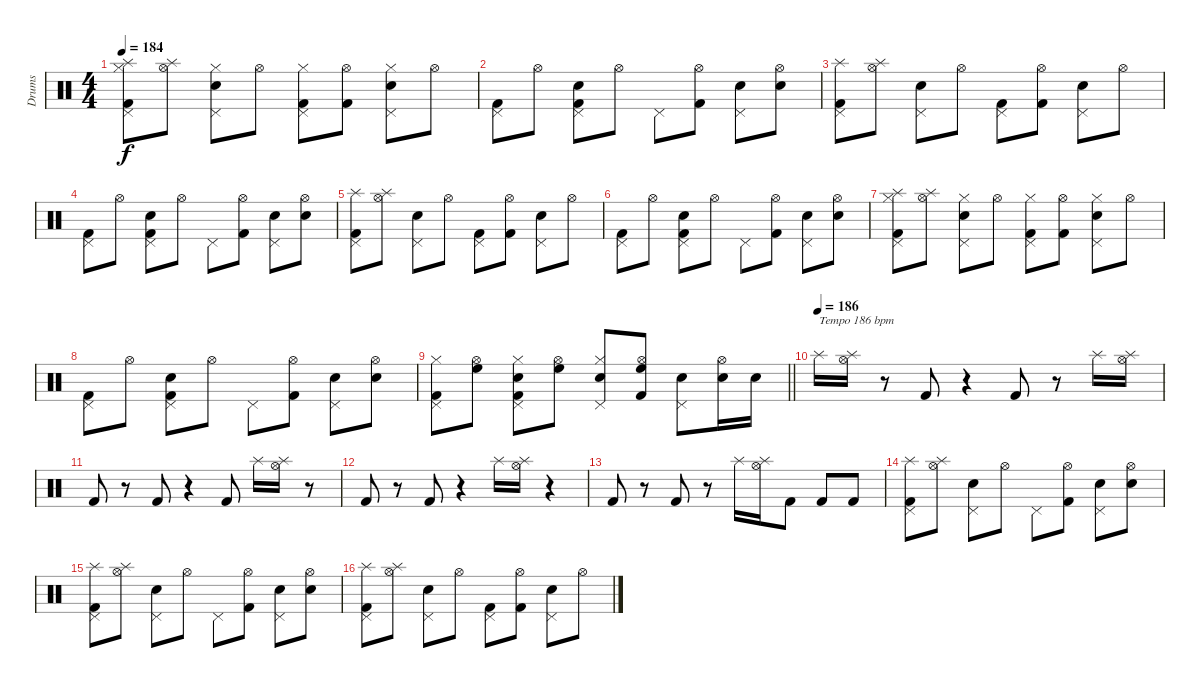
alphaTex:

\track ("Drums" "Drums") {instrument percussion}
\staff {score}
\articulation defaults
\ts (4 4)
\tempo 184
\clef neutral
\ks c
("Pedal Hi-Hat (hit)" "Hi-Hat (closed)" "Splash (hit)" "Kick (hit) 2").8{dy f} ("Hi-Hat (open)" "Splash (hit)").8 ("Pedal Hi-Hat (hit)" "Hi-Hat (closed)" "Snare (hit) 2").8 "Hi-Hat (open)".8 ("Pedal Hi-Hat (hit)" "Hi-Hat (closed)" "Kick (hit) 2").8 ("Hi-Hat (open)" "Kick (hit) 2").8 ("Pedal Hi-Hat (hit)" "Hi-Hat (closed)" "Snare (hit) 2").8 "Hi-Hat (open)".8 |
("Pedal Hi-Hat (hit)" "Kick (hit) 2").8 "Hi-Hat (open)".8 ("Pedal Hi-Hat (hit)" "Snare (hit) 2" "Kick (hit) 2").8 "Hi-Hat (open)".8 "Pedal Hi-Hat (hit)".8 ("Hi-Hat (open)" "Kick (hit) 2").8 ("Pedal Hi-Hat (hit)" "Snare (hit) 2").8 ("Hi-Hat (open)" "Snare (hit) 2").8 |
("Pedal Hi-Hat (hit)" "Splash (hit)" "Kick (hit) 2").8 ("Hi-Hat (open)" "Splash (hit)").8 ("Pedal Hi-Hat (hit)" "Snare (hit) 2").8 "Hi-Hat (open)".8 ("Pedal Hi-Hat (hit)" "Kick (hit) 2").8 ("Hi-Hat (open)" "Kick (hit) 2").8 ("Pedal Hi-Hat (hit)" "Snare (hit) 2").8 "Hi-Hat (open)".8 |
("Pedal Hi-Hat (hit)" "Kick (hit) 2").8 "Hi-Hat (open)".8 ("Pedal Hi-Hat (hit)" "Snare (hit) 2" "Kick (hit) 2").8 "Hi-Hat (open)".8 "Pedal Hi-Hat (hit)".8 ("Hi-Hat (open)" "Kick (hit) 2").8 ("Pedal Hi-Hat (hit)" "Snare (hit) 2").8 ("Hi-Hat (open)" "Snare (hit) 2").8 |
("Pedal Hi-Hat (hit)" "Splash (hit)" "Kick (hit) 2").8 ("Hi-Hat (open)" "Splash (hit)").8 ("Pedal Hi-Hat (hit)" "Snare (hit) 2").8 "Hi-Hat (open)".8 ("Pedal Hi-Hat (hit)" "Kick (hit) 2").8 ("Hi-Hat (open)" "Kick (hit) 2").8 ("Pedal Hi-Hat (hit)" "Snare (hit) 2").8 "Hi-Hat (open)".8 |
("Pedal Hi-Hat (hit)" "Kick (hit) 2").8 "Hi-Hat (open)".8 ("Pedal Hi-Hat (hit)" "Snare (hit) 2" "Kick (hit) 2").8 "Hi-Hat (open)".8 "Pedal Hi-Hat (hit)".8 ("Hi-Hat (open)" "Kick (hit) 2").8 ("Pedal Hi-Hat (hit)" "Snare (hit) 2").8 ("Hi-Hat (open)" "Snare (hit) 2").8 |
("Pedal Hi-Hat (hit)" "Hi-Hat (closed)" "Splash (hit)" "Kick (hit) 2").8 ("Hi-Hat (open)" "Splash (hit)").8 ("Pedal Hi-Hat (hit)" "Hi-Hat (closed)" "Snare (hit) 2").8 "Hi-Hat (open)".8 ("Pedal Hi-Hat (hit)" "Hi-Hat (closed)" "Kick (hit) 2").8 ("Hi-Hat (open)" "Kick (hit) 2").8 ("Pedal Hi-Hat (hit)" "Hi-Hat (closed)" "Snare (hit) 2").8 "Hi-Hat (open)".8 |
("Pedal Hi-Hat (hit)" "Kick (hit) 2").8 "Hi-Hat (open)".8 ("Pedal Hi-Hat (hit)" "Snare (hit) 2" "Kick (hit) 2").8 "Hi-Hat (open)".8 "Pedal Hi-Hat (hit)".8 ("Hi-Hat (open)" "Kick (hit) 2").8 ("Pedal Hi-Hat (hit)" "Snare (hit) 2").8 ("Hi-Hat (open)" "Snare (hit) 2").8 |
\barLineRight lightlight
("Pedal Hi-Hat (hit)" "Hi-Hat (closed)" "Kick (hit) 2").8 ("Hi-Hat (open)" "High Floor Tom (hit)").8 ("Pedal Hi-Hat (hit)" "Hi-Hat (closed)" "Snare (hit) 2" "Kick (hit) 2").8 ("Hi-Hat (open)" "High Floor Tom (hit)").8 ("Pedal Hi-Hat (hit)" "Hi-Hat (closed)" "Snare (hit) 2").8 ("Hi-Hat (open)" "High Floor Tom (hit)" "Kick (hit) 2").8 ("Pedal Hi-Hat (hit)" "Snare (hit) 2").8 ("Hi-Hat (open)" "Snare (hit) 2").16 "Snare (hit) 2".16 |
\tempo (186)
"Splash (hit)".16{txt "Tempo 186 bpm"} ("Hi-Hat (open)" "Splash (hit)").16 r.8 "Kick (hit) 2".8 r.4 "Kick (hit) 2".8 r.8 "Splash (hit)".16 ("Hi-Hat (open)" "Splash (hit)").16 |
"Kick (hit) 2".8 r.8 "Kick (hit) 2".8 r.4 "Kick (hit) 2".8 "Splash (hit)".16 ("Hi-Hat (open)" "Splash (hit)").16 r.8 |
"Kick (hit) 2".8 r.8 "Kick (hit) 2".8 r.4 "Splash (hit)".16 ("Hi-Hat (open)" "Splash (hit)").16 r.4 |
"Kick (hit) 2".8 r.8 "Kick (hit) 2".8 r.8 "Splash (hit)".16 ("Hi-Hat (open)" "Splash (hit)").16 "Kick (hit) 2".8 "Kick (hit) 2".8 "Kick (hit) 2".8 |
("Pedal Hi-Hat (hit)" "Splash (hit)" "Kick (hit) 2").8 ("Hi-Hat (open)" "Splash (hit)").8 ("Pedal Hi-Hat (hit)" "Snare (hit) 2").8 "Hi-Hat (open)".8 "Pedal Hi-Hat (hit)".8 ("Hi-Hat (open)" "Kick (hit) 2").8 ("Pedal Hi-Hat (hit)" "Snare (hit) 2").8 ("Hi-Hat (open)" "Snare (hit) 2").8 |
("Pedal Hi-Hat (hit)" "Splash (hit)" "Kick (hit) 2").8 ("Hi-Hat (open)" "Splash (hit)").8 ("Pedal Hi-Hat (hit)" "Snare (hit) 2").8 "Hi-Hat (open)".8 "Pedal Hi-Hat (hit)".8 ("Hi-Hat (open)" "Kick (hit) 2").8 ("Pedal Hi-Hat (hit)" "Snare (hit) 2").8 ("Hi-Hat (open)" "Snare (hit) 2").8 |
("Pedal Hi-Hat (hit)" "Splash (hit)" "Kick (hit) 2").8 ("Hi-Hat (open)" "Splash (hit)").8 ("Pedal Hi-Hat (hit)" "Snare (hit) 2").8 "Hi-Hat (open)".8 ("Pedal Hi-Hat (hit)" "Kick (hit) 2").8 ("Hi-Hat (open)" "Kick (hit) 2").8 ("Pedal Hi-Hat (hit)" "Snare (hit) 2").8 "Hi-Hat (open)".8
